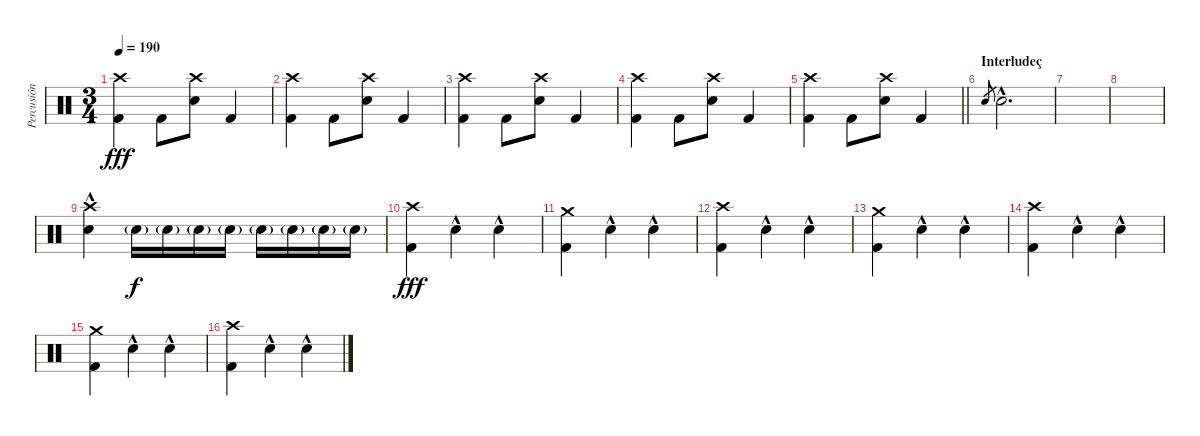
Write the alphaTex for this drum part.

\track ("Percusión" "Percusión") {instrument percussion}
\staff {score}
\articulation defaults
\ts (3 4)
\tempo 190
\clef neutral
\ks c
("Crash high (hit)" "Kick (hit) 2").4{dy fff} "Kick (hit) 2".8 ("Crash high (hit)" "Electric Snare (hit)").8 "Kick (hit) 2".4 |
("Crash high (hit)" "Kick (hit) 2").4 "Kick (hit) 2".8 ("Crash high (hit)" "Electric Snare (hit)").8 "Kick (hit) 2".4 |
("Crash high (hit)" "Kick (hit) 2").4 "Kick (hit) 2".8 ("Crash high (hit)" "Electric Snare (hit)").8 "Kick (hit) 2".4 |
("Crash high (hit)" "Kick (hit) 2").4 "Kick (hit) 2".8 ("Crash high (hit)" "Electric Snare (hit)").8 "Kick (hit) 2".4 |
\barLineRight lightlight
("Crash high (hit)" "Kick (hit) 2").4 "Kick (hit) 2".8 ("Crash high (hit)" "Electric Snare (hit)").8 "Kick (hit) 2".4 |
\section ("" "Interludeç")
"Electric Snare (hit)".8{gr} "Electric Snare (hit)"{hac}.2{d} |
|
|
("Crash high (hit)" "Electric Snare (hit)"{hac}).4 "Electric Snare (hit)"{g}.16{dy f} "Electric Snare (hit)"{g}.16 "Electric Snare (hit)"{g}.16 "Electric Snare (hit)"{g}.16 "Electric Snare (hit)"{g}.16 "Electric Snare (hit)"{g}.16 "Electric Snare (hit)"{g}.16 "Electric Snare (hit)"{g}.16 |
("Crash high (hit)" "Kick (hit) 2").4{dy fff} "Electric Snare (hit)"{hac}.4 "Electric Snare (hit)"{hac}.4 |
("Crash medium (hit)" "Kick (hit) 2").4 "Electric Snare (hit)"{hac}.4 "Electric Snare (hit)"{hac}.4 |
("Crash high (hit)" "Kick (hit) 2").4 "Electric Snare (hit)"{hac}.4 "Electric Snare (hit)"{hac}.4 |
("Crash medium (hit)" "Kick (hit) 2").4 "Electric Snare (hit)"{hac}.4 "Electric Snare (hit)"{hac}.4 |
("Crash high (hit)" "Kick (hit) 2").4 "Electric Snare (hit)"{hac}.4 "Electric Snare (hit)"{hac}.4 |
("Crash medium (hit)" "Kick (hit) 2").4 "Electric Snare (hit)"{hac}.4 "Electric Snare (hit)"{hac}.4 |
("Crash high (hit)" "Kick (hit) 2").4 "Electric Snare (hit)"{hac}.4 "Electric Snare (hit)"{hac}.4
